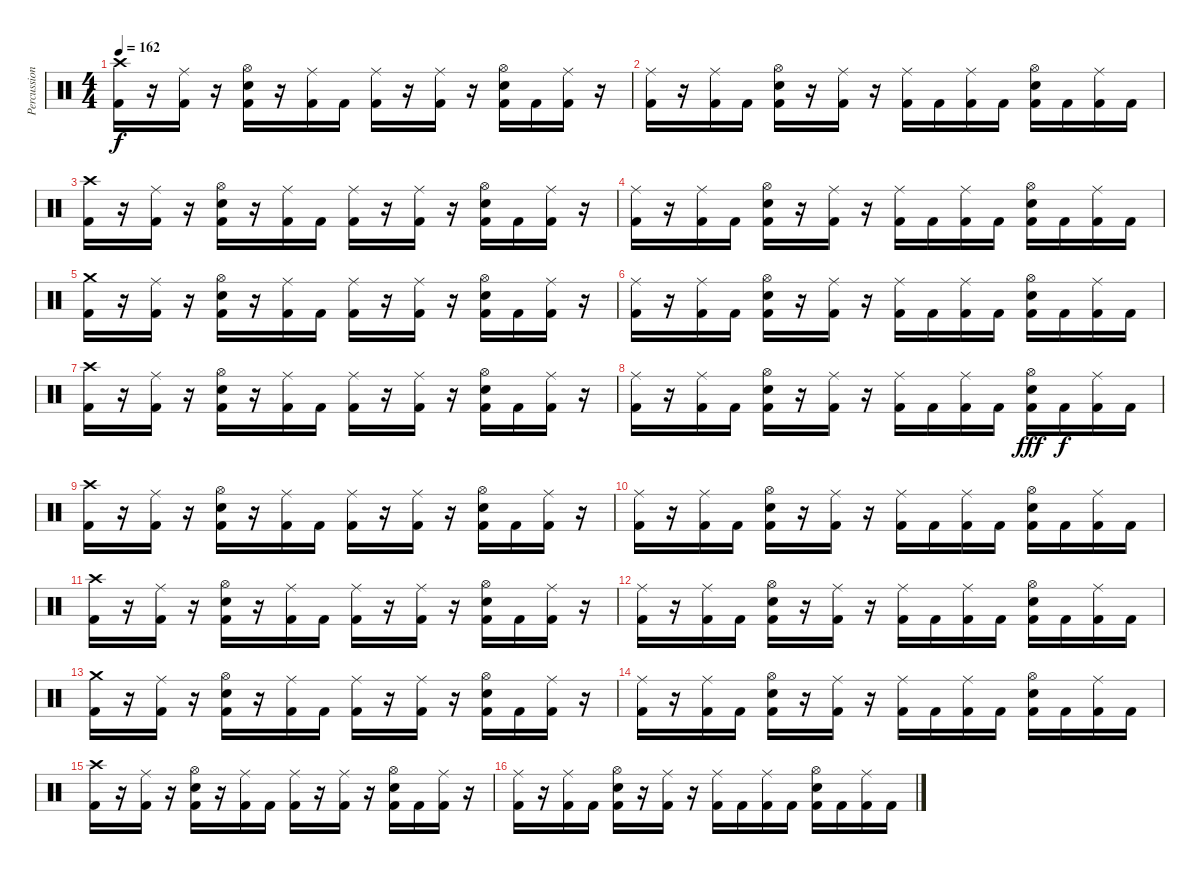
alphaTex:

\track ("Percussion" "Percussion") {instrument percussion}
\staff {score}
\articulation defaults
\ts (4 4)
\tempo 162
\clef neutral
\ks c
("Crash high (hit)" "Kick (hit) 2").16{dy f} r.16 ("Ride (middle)" "Kick (hit) 2").16 r.16 ("Hi-Hat (open)" "Electric Snare (hit)" "Kick (hit) 2").16 r.16 ("Ride (middle)" "Kick (hit) 2").16 "Kick (hit) 2".16 ("Ride (middle)" "Kick (hit) 2").16 r.16 ("Ride (middle)" "Kick (hit) 2").16 r.16 ("Hi-Hat (open)" "Electric Snare (hit)" "Kick (hit) 2").16 "Kick (hit) 2".16 ("Ride (middle)" "Kick (hit) 2").16 r.16 |
("Ride (middle)" "Kick (hit) 2").16 r.16 ("Ride (middle)" "Kick (hit) 2").16 "Kick (hit) 2".16 ("Hi-Hat (open)" "Electric Snare (hit)" "Kick (hit) 2").16 r.16 ("Ride (middle)" "Kick (hit) 2").16 r.16 ("Ride (middle)" "Kick (hit) 2").16 "Kick (hit) 2".16 ("Ride (middle)" "Kick (hit) 2").16 "Kick (hit) 2".16 ("Hi-Hat (open)" "Electric Snare (hit)" "Kick (hit) 2").16 "Kick (hit) 2".16 ("Ride (middle)" "Kick (hit) 2").16 "Kick (hit) 2".16 |
("Crash high (hit)" "Kick (hit) 2").16 r.16 ("Ride (middle)" "Kick (hit) 2").16 r.16 ("Hi-Hat (open)" "Electric Snare (hit)" "Kick (hit) 2").16 r.16 ("Ride (middle)" "Kick (hit) 2").16 "Kick (hit) 2".16 ("Ride (middle)" "Kick (hit) 2").16 r.16 ("Ride (middle)" "Kick (hit) 2").16 r.16 ("Hi-Hat (open)" "Electric Snare (hit)" "Kick (hit) 2").16 "Kick (hit) 2".16 ("Ride (middle)" "Kick (hit) 2").16 r.16 |
("Ride (middle)" "Kick (hit) 2").16 r.16 ("Ride (middle)" "Kick (hit) 2").16 "Kick (hit) 2".16 ("Hi-Hat (open)" "Electric Snare (hit)" "Kick (hit) 2").16 r.16 ("Ride (middle)" "Kick (hit) 2").16 r.16 ("Ride (middle)" "Kick (hit) 2").16 "Kick (hit) 2".16 ("Ride (middle)" "Kick (hit) 2").16 "Kick (hit) 2".16 ("Hi-Hat (open)" "Electric Snare (hit)" "Kick (hit) 2").16 "Kick (hit) 2".16 ("Ride (middle)" "Kick (hit) 2").16 "Kick (hit) 2".16 |
("Crash medium (hit)" "Kick (hit) 2").16 r.16 ("Ride (middle)" "Kick (hit) 2").16 r.16 ("Hi-Hat (open)" "Electric Snare (hit)" "Kick (hit) 2").16 r.16 ("Ride (middle)" "Kick (hit) 2").16 "Kick (hit) 2".16 ("Ride (middle)" "Kick (hit) 2").16 r.16 ("Ride (middle)" "Kick (hit) 2").16 r.16 ("Hi-Hat (open)" "Electric Snare (hit)" "Kick (hit) 2").16 "Kick (hit) 2".16 ("Ride (middle)" "Kick (hit) 2").16 r.16 |
("Ride (middle)" "Kick (hit) 2").16 r.16 ("Ride (middle)" "Kick (hit) 2").16 "Kick (hit) 2".16 ("Hi-Hat (open)" "Electric Snare (hit)" "Kick (hit) 2").16 r.16 ("Ride (middle)" "Kick (hit) 2").16 r.16 ("Ride (middle)" "Kick (hit) 2").16 "Kick (hit) 2".16 ("Ride (middle)" "Kick (hit) 2").16 "Kick (hit) 2".16 ("Hi-Hat (open)" "Electric Snare (hit)" "Kick (hit) 2").16 "Kick (hit) 2".16 ("Ride (middle)" "Kick (hit) 2").16 "Kick (hit) 2".16 |
("Crash high (hit)" "Kick (hit) 2").16 r.16 ("Ride (middle)" "Kick (hit) 2").16 r.16 ("Hi-Hat (open)" "Electric Snare (hit)" "Kick (hit) 2").16 r.16 ("Ride (middle)" "Kick (hit) 2").16 "Kick (hit) 2".16 ("Ride (middle)" "Kick (hit) 2").16 r.16 ("Ride (middle)" "Kick (hit) 2").16 r.16 ("Hi-Hat (open)" "Electric Snare (hit)" "Kick (hit) 2").16 "Kick (hit) 2".16 ("Ride (middle)" "Kick (hit) 2").16 r.16 |
("Ride (middle)" "Kick (hit) 2").16 r.16 ("Ride (middle)" "Kick (hit) 2").16 "Kick (hit) 2".16 ("Hi-Hat (open)" "Electric Snare (hit)" "Kick (hit) 2").16 r.16 ("Ride (middle)" "Kick (hit) 2").16 r.16 ("Ride (middle)" "Kick (hit) 2").16 "Kick (hit) 2".16 ("Ride (middle)" "Kick (hit) 2").16 "Kick (hit) 2".16 ("Hi-Hat (open)" "Electric Snare (hit)" "Kick (hit) 2").16{dy fff} "Kick (hit) 2".16{dy f} ("Ride (middle)" "Kick (hit) 2").16 "Kick (hit) 2".16 |
("Crash high (hit)" "Kick (hit) 2").16 r.16 ("Ride (middle)" "Kick (hit) 2").16 r.16 ("Hi-Hat (open)" "Electric Snare (hit)" "Kick (hit) 2").16 r.16 ("Ride (middle)" "Kick (hit) 2").16 "Kick (hit) 2".16 ("Ride (middle)" "Kick (hit) 2").16 r.16 ("Ride (middle)" "Kick (hit) 2").16 r.16 ("Hi-Hat (open)" "Electric Snare (hit)" "Kick (hit) 2").16 "Kick (hit) 2".16 ("Ride (middle)" "Kick (hit) 2").16 r.16 |
("Ride (middle)" "Kick (hit) 2").16 r.16 ("Ride (middle)" "Kick (hit) 2").16 "Kick (hit) 2".16 ("Hi-Hat (open)" "Electric Snare (hit)" "Kick (hit) 2").16 r.16 ("Ride (middle)" "Kick (hit) 2").16 r.16 ("Ride (middle)" "Kick (hit) 2").16 "Kick (hit) 2".16 ("Ride (middle)" "Kick (hit) 2").16 "Kick (hit) 2".16 ("Hi-Hat (open)" "Electric Snare (hit)" "Kick (hit) 2").16 "Kick (hit) 2".16 ("Ride (middle)" "Kick (hit) 2").16 "Kick (hit) 2".16 |
("Crash high (hit)" "Kick (hit) 2").16 r.16 ("Ride (middle)" "Kick (hit) 2").16 r.16 ("Hi-Hat (open)" "Electric Snare (hit)" "Kick (hit) 2").16 r.16 ("Ride (middle)" "Kick (hit) 2").16 "Kick (hit) 2".16 ("Ride (middle)" "Kick (hit) 2").16 r.16 ("Ride (middle)" "Kick (hit) 2").16 r.16 ("Hi-Hat (open)" "Electric Snare (hit)" "Kick (hit) 2").16 "Kick (hit) 2".16 ("Ride (middle)" "Kick (hit) 2").16 r.16 |
("Ride (middle)" "Kick (hit) 2").16 r.16 ("Ride (middle)" "Kick (hit) 2").16 "Kick (hit) 2".16 ("Hi-Hat (open)" "Electric Snare (hit)" "Kick (hit) 2").16 r.16 ("Ride (middle)" "Kick (hit) 2").16 r.16 ("Ride (middle)" "Kick (hit) 2").16 "Kick (hit) 2".16 ("Ride (middle)" "Kick (hit) 2").16 "Kick (hit) 2".16 ("Hi-Hat (open)" "Electric Snare (hit)" "Kick (hit) 2").16 "Kick (hit) 2".16 ("Ride (middle)" "Kick (hit) 2").16 "Kick (hit) 2".16 |
("Crash medium (hit)" "Kick (hit) 2").16 r.16 ("Ride (middle)" "Kick (hit) 2").16 r.16 ("Hi-Hat (open)" "Electric Snare (hit)" "Kick (hit) 2").16 r.16 ("Ride (middle)" "Kick (hit) 2").16 "Kick (hit) 2".16 ("Ride (middle)" "Kick (hit) 2").16 r.16 ("Ride (middle)" "Kick (hit) 2").16 r.16 ("Hi-Hat (open)" "Electric Snare (hit)" "Kick (hit) 2").16 "Kick (hit) 2".16 ("Ride (middle)" "Kick (hit) 2").16 r.16 |
("Ride (middle)" "Kick (hit) 2").16 r.16 ("Ride (middle)" "Kick (hit) 2").16 "Kick (hit) 2".16 ("Hi-Hat (open)" "Electric Snare (hit)" "Kick (hit) 2").16 r.16 ("Ride (middle)" "Kick (hit) 2").16 r.16 ("Ride (middle)" "Kick (hit) 2").16 "Kick (hit) 2".16 ("Ride (middle)" "Kick (hit) 2").16 "Kick (hit) 2".16 ("Hi-Hat (open)" "Electric Snare (hit)" "Kick (hit) 2").16 "Kick (hit) 2".16 ("Ride (middle)" "Kick (hit) 2").16 "Kick (hit) 2".16 |
("Crash high (hit)" "Kick (hit) 2").16 r.16 ("Ride (middle)" "Kick (hit) 2").16 r.16 ("Hi-Hat (open)" "Electric Snare (hit)" "Kick (hit) 2").16 r.16 ("Ride (middle)" "Kick (hit) 2").16 "Kick (hit) 2".16 ("Ride (middle)" "Kick (hit) 2").16 r.16 ("Ride (middle)" "Kick (hit) 2").16 r.16 ("Hi-Hat (open)" "Electric Snare (hit)" "Kick (hit) 2").16 "Kick (hit) 2".16 ("Ride (middle)" "Kick (hit) 2").16 r.16 |
("Ride (middle)" "Kick (hit) 2").16 r.16 ("Ride (middle)" "Kick (hit) 2").16 "Kick (hit) 2".16 ("Hi-Hat (open)" "Electric Snare (hit)" "Kick (hit) 2").16 r.16 ("Ride (middle)" "Kick (hit) 2").16 r.16 ("Ride (middle)" "Kick (hit) 2").16 "Kick (hit) 2".16 ("Ride (middle)" "Kick (hit) 2").16 "Kick (hit) 2".16 ("Hi-Hat (open)" "Electric Snare (hit)" "Kick (hit) 2").16 "Kick (hit) 2".16 ("Ride (middle)" "Kick (hit) 2").16 "Kick (hit) 2".16
